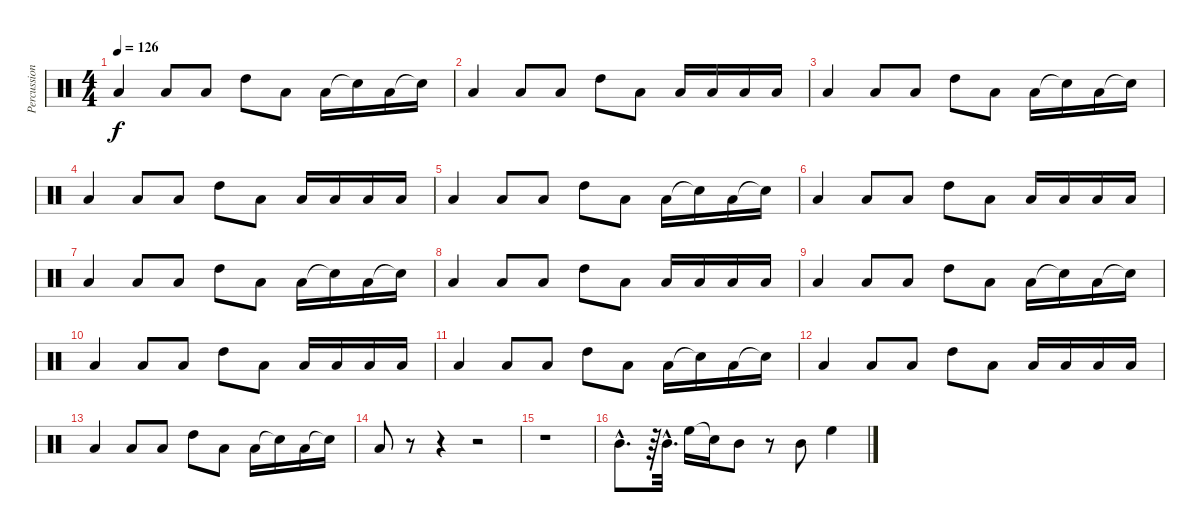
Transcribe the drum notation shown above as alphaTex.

\track ("Percussion" "Percussion") {instrument percussion}
\staff {score}
\articulation defaults
\ts (4 4)
\tempo 126
\clef neutral
\ks c "Low Tom (hit)".4{dy f} "Low Tom (hit)".8 "Low Tom (hit)".8 "High Tom (hit)".8 "Low Tom (hit)".8 "Low Tom (hit)".16 "Snare (hit)"{t}.16 "Low Tom (hit)".16 "Snare (hit)"{t}.16
|
"Low Tom (hit)".4 "Low Tom (hit)".8 "Low Tom (hit)".8 "High Tom (hit)".8 "Low Tom (hit)".8 "Low Tom (hit)".16 "Low Tom (hit)".16 "Low Tom (hit)".16 "Low Tom (hit)".16 |
"Low Tom (hit)".4 "Low Tom (hit)".8 "Low Tom (hit)".8 "High Tom (hit)".8 "Low Tom (hit)".8 "Low Tom (hit)".16 "Snare (hit)"{t}.16 "Low Tom (hit)".16 "Snare (hit)"{t}.16 |
"Low Tom (hit)".4 "Low Tom (hit)".8 "Low Tom (hit)".8 "High Tom (hit)".8 "Low Tom (hit)".8 "Low Tom (hit)".16 "Low Tom (hit)".16 "Low Tom (hit)".16 "Low Tom (hit)".16 |
"Low Tom (hit)".4 "Low Tom (hit)".8 "Low Tom (hit)".8 "High Tom (hit)".8 "Low Tom (hit)".8 "Low Tom (hit)".16 "Snare (hit)"{t}.16 "Low Tom (hit)".16 "Snare (hit)"{t}.16 |
"Low Tom (hit)".4 "Low Tom (hit)".8 "Low Tom (hit)".8 "High Tom (hit)".8 "Low Tom (hit)".8 "Low Tom (hit)".16 "Low Tom (hit)".16 "Low Tom (hit)".16 "Low Tom (hit)".16 |
"Low Tom (hit)".4 "Low Tom (hit)".8 "Low Tom (hit)".8 "High Tom (hit)".8 "Low Tom (hit)".8 "Low Tom (hit)".16 "Snare (hit)"{t}.16 "Low Tom (hit)".16 "Snare (hit)"{t}.16 |
"Low Tom (hit)".4 "Low Tom (hit)".8 "Low Tom (hit)".8 "High Tom (hit)".8 "Low Tom (hit)".8 "Low Tom (hit)".16 "Low Tom (hit)".16 "Low Tom (hit)".16 "Low Tom (hit)".16 |
"Low Tom (hit)".4 "Low Tom (hit)".8 "Low Tom (hit)".8 "High Tom (hit)".8 "Low Tom (hit)".8 "Low Tom (hit)".16 "Snare (hit)"{t}.16 "Low Tom (hit)".16 "Snare (hit)"{t}.16 |
"Low Tom (hit)".4 "Low Tom (hit)".8 "Low Tom (hit)".8 "High Tom (hit)".8 "Low Tom (hit)".8 "Low Tom (hit)".16 "Low Tom (hit)".16 "Low Tom (hit)".16 "Low Tom (hit)".16 |
"Low Tom (hit)".4 "Low Tom (hit)".8 "Low Tom (hit)".8 "High Tom (hit)".8 "Low Tom (hit)".8 "Low Tom (hit)".16 "Snare (hit)"{t}.16 "Low Tom (hit)".16 "Snare (hit)"{t}.16 |
"Low Tom (hit)".4 "Low Tom (hit)".8 "Low Tom (hit)".8 "High Tom (hit)".8 "Low Tom (hit)".8 "Low Tom (hit)".16 "Low Tom (hit)".16 "Low Tom (hit)".16 "Low Tom (hit)".16 |
"Low Tom (hit)".4 "Low Tom (hit)".8 "Low Tom (hit)".8 "High Tom (hit)".8 "Low Tom (hit)".8 "Low Tom (hit)".16 "Snare (hit)"{t}.16 "Low Tom (hit)".16 "Snare (hit)"{t}.16 |
"Low Tom (hit)".8 r.8 r.4 r.2 |
r.1 |
"Mid Tom (hit)"{hac}.8{d} r.64 "Mid Tom (hit)"{hac}.32{d} "High Floor Tom (hit)".16 "Snare (hit)"{t}.16 "Mid Tom (hit)".8 r.8 "Mid Tom (hit)".8 "High Floor Tom (hit)".4
